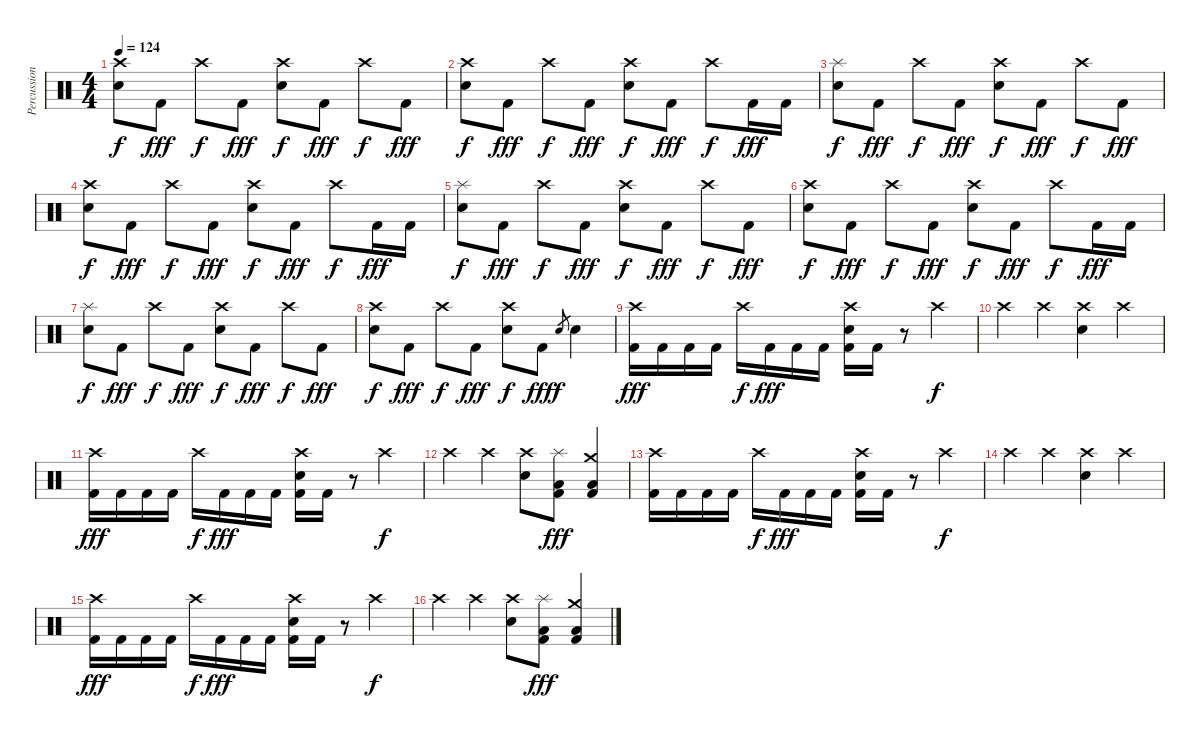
\track ("Percussion" "Percussion") {instrument percussion}
\staff {score}
\articulation defaults
\ts (4 4)
\tempo 124
\clef neutral
\ks c
("Crash high (hit)" "Snare (hit) 2").8{dy f} "Kick (hit) 2".8{dy fff} "Crash high (hit)".8{dy f} "Kick (hit) 2".8{dy fff} ("Crash high (hit)" "Snare (hit) 2").8{dy f} "Kick (hit) 2".8{dy fff} "Crash high (hit)".8{dy f} "Kick (hit) 2".8{dy fff} |
("Crash high (hit)" "Snare (hit) 2").8{dy f} "Kick (hit) 2".8{dy fff} "Crash high (hit)".8{dy f} "Kick (hit) 2".8{dy fff} ("Crash high (hit)" "Snare (hit) 2").8{dy f} "Kick (hit) 2".8{dy fff} "Crash high (hit)".8{dy f} "Kick (hit) 2".16{dy fff} "Kick (hit) 2".16 |
("Splash (hit)" "Snare (hit) 2").8{dy f} "Kick (hit) 2".8{dy fff} "Crash high (hit)".8{dy f} "Kick (hit) 2".8{dy fff} ("Crash high (hit)" "Snare (hit) 2").8{dy f} "Kick (hit) 2".8{dy fff} "Crash high (hit)".8{dy f} "Kick (hit) 2".8{dy fff} |
("Crash high (hit)" "Snare (hit) 2").8{dy f} "Kick (hit) 2".8{dy fff} "Crash high (hit)".8{dy f} "Kick (hit) 2".8{dy fff} ("Crash high (hit)" "Snare (hit) 2").8{dy f} "Kick (hit) 2".8{dy fff} "Crash high (hit)".8{dy f} "Kick (hit) 2".16{dy fff} "Kick (hit) 2".16 |
("Splash (hit)" "Snare (hit) 2").8{dy f} "Kick (hit) 2".8{dy fff} "Crash high (hit)".8{dy f} "Kick (hit) 2".8{dy fff} ("Crash high (hit)" "Snare (hit) 2").8{dy f} "Kick (hit) 2".8{dy fff} "Crash high (hit)".8{dy f} "Kick (hit) 2".8{dy fff} |
("Crash high (hit)" "Snare (hit) 2").8{dy f} "Kick (hit) 2".8{dy fff} "Crash high (hit)".8{dy f} "Kick (hit) 2".8{dy fff} ("Crash high (hit)" "Snare (hit) 2").8{dy f} "Kick (hit) 2".8{dy fff} "Crash high (hit)".8{dy f} "Kick (hit) 2".16{dy fff} "Kick (hit) 2".16 |
("Splash (hit)" "Snare (hit) 2").8{dy f} "Kick (hit) 2".8{dy fff} "Crash high (hit)".8{dy f} "Kick (hit) 2".8{dy fff} ("Crash high (hit)" "Snare (hit) 2").8{dy f} "Kick (hit) 2".8{dy fff} "Crash high (hit)".8{dy f} "Kick (hit) 2".8{dy fff} |
("Crash high (hit)" "Snare (hit) 2").8{dy f} "Kick (hit) 2".8{dy fff} "Crash high (hit)".8{dy f} "Kick (hit) 2".8{dy fff} ("Crash high (hit)" "Snare (hit) 2").8{dy f} "Kick (hit) 2".8{dy fff} "Snare (hit) 2".8{gr dy f} "Snare (hit) 2".4 |
("Crash high (hit)" "Kick (hit) 2").16{dy fff} "Kick (hit) 2".16 "Kick (hit) 2".16 "Kick (hit) 2".16 "Crash high (hit)".16{dy f} "Kick (hit) 2".16{dy fff} "Kick (hit) 2".16 "Kick (hit) 2".16 ("Crash high (hit)" "Snare (hit) 2" "Kick (hit) 2").16 "Kick (hit) 2".16 r.8 "Crash high (hit)".4{dy f} |
"Crash high (hit)".4 "Crash high (hit)".4 ("Crash high (hit)" "Snare (hit) 2").4 "Crash high (hit)".4 |
("Crash high (hit)" "Kick (hit) 2").16{dy fff} "Kick (hit) 2".16 "Kick (hit) 2".16 "Kick (hit) 2".16 "Crash high (hit)".16{dy f} "Kick (hit) 2".16{dy fff} "Kick (hit) 2".16 "Kick (hit) 2".16 ("Crash high (hit)" "Snare (hit) 2" "Kick (hit) 2").16 "Kick (hit) 2".16 r.8 "Crash high (hit)".4{dy f} |
"Crash high (hit)".4 "Crash high (hit)".4 ("Crash high (hit)" "Snare (hit) 2").8 ("Splash (hit)" "Low Tom (hit)" "Kick (hit) 2").8{dy fff} ("Crash medium (hit)" "Low Floor Tom (hit)" "Kick (hit) 2").4 |
("Crash high (hit)" "Kick (hit) 2").16 "Kick (hit) 2".16 "Kick (hit) 2".16 "Kick (hit) 2".16 "Crash high (hit)".16{dy f} "Kick (hit) 2".16{dy fff} "Kick (hit) 2".16 "Kick (hit) 2".16 ("Crash high (hit)" "Snare (hit) 2" "Kick (hit) 2").16 "Kick (hit) 2".16 r.8 "Crash high (hit)".4{dy f} |
"Crash high (hit)".4 "Crash high (hit)".4 ("Crash high (hit)" "Snare (hit) 2").4 "Crash high (hit)".4 |
("Crash high (hit)" "Kick (hit) 2").16{dy fff} "Kick (hit) 2".16 "Kick (hit) 2".16 "Kick (hit) 2".16 "Crash high (hit)".16{dy f} "Kick (hit) 2".16{dy fff} "Kick (hit) 2".16 "Kick (hit) 2".16 ("Crash high (hit)" "Snare (hit) 2" "Kick (hit) 2").16 "Kick (hit) 2".16 r.8 "Crash high (hit)".4{dy f} |
"Crash high (hit)".4 "Crash high (hit)".4 ("Crash high (hit)" "Snare (hit) 2").8 ("Splash (hit)" "Low Tom (hit)" "Kick (hit) 2").8{dy fff} ("Crash medium (hit)" "Low Floor Tom (hit)" "Kick (hit) 2").4
